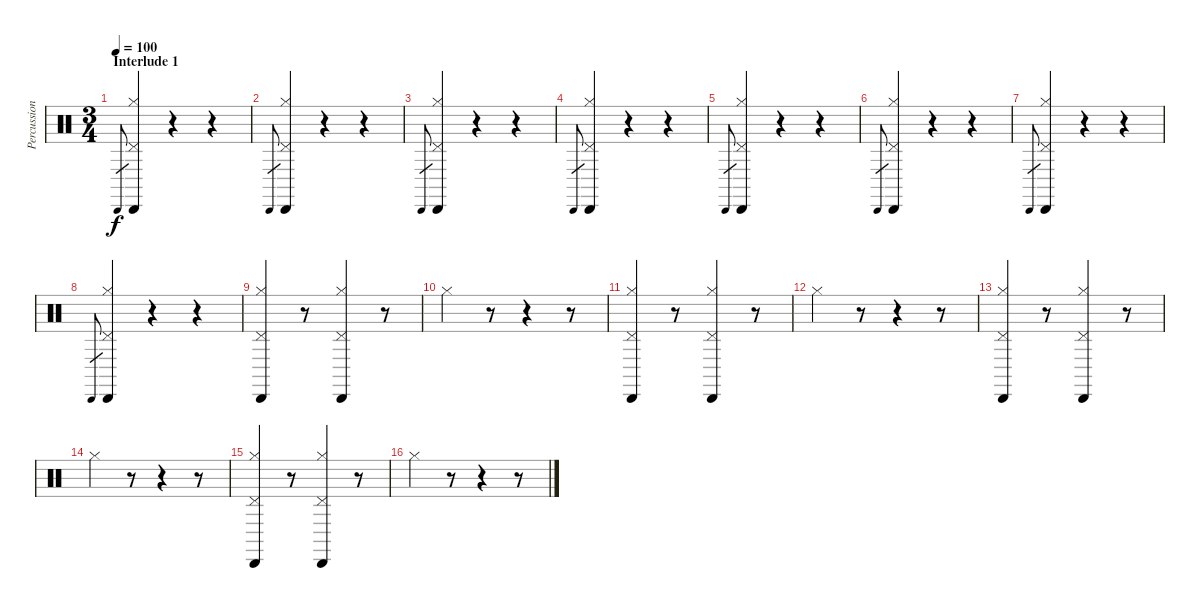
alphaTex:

\track ("Percussion" "Percussion") {instrument percussion}
\staff {score}
\articulation defaults
\ts (3 4)
\section ("" "Interlude 1")
\tempo 100
\clef neutral
\ks c "Cabasa (hit)".8{gr dy f}
("Pedal Hi-Hat (hit)" "Cabasa (hit)" "Hi-Hat (closed)").4 r.4 r.4 |
"Cabasa (hit)".8{gr} ("Pedal Hi-Hat (hit)" "Cabasa (hit)" "Hi-Hat (closed)").4 r.4 r.4 |
"Cabasa (hit)".8{gr} ("Pedal Hi-Hat (hit)" "Cabasa (hit)" "Hi-Hat (closed)").4 r.4 r.4 |
"Cabasa (hit)".8{gr} ("Pedal Hi-Hat (hit)" "Cabasa (hit)" "Hi-Hat (closed)").4 r.4 r.4 |
"Cabasa (hit)".8{gr} ("Pedal Hi-Hat (hit)" "Cabasa (hit)" "Hi-Hat (closed)").4 r.4 r.4 |
"Cabasa (hit)".8{gr} ("Pedal Hi-Hat (hit)" "Cabasa (hit)" "Hi-Hat (closed)").4 r.4 r.4 |
"Cabasa (hit)".8{gr} ("Pedal Hi-Hat (hit)" "Cabasa (hit)" "Hi-Hat (closed)").4 r.4 r.4 |
"Cabasa (hit)".8{gr} ("Pedal Hi-Hat (hit)" "Cabasa (hit)" "Hi-Hat (closed)").4 r.4 r.4 |
("Pedal Hi-Hat (hit)" "Cabasa (hit)" "Hi-Hat (closed)").4 r.8 ("Pedal Hi-Hat (hit)" "Cabasa (hit)" "Hi-Hat (closed)").4 r.8 |
"Hi-Hat (closed)".4 r.8 r.4 r.8 |
("Pedal Hi-Hat (hit)" "Cabasa (hit)" "Hi-Hat (closed)").4 r.8 ("Pedal Hi-Hat (hit)" "Cabasa (hit)" "Hi-Hat (closed)").4 r.8 |
"Hi-Hat (closed)".4 r.8 r.4 r.8 |
("Pedal Hi-Hat (hit)" "Cabasa (hit)" "Hi-Hat (closed)").4 r.8 ("Pedal Hi-Hat (hit)" "Cabasa (hit)" "Hi-Hat (closed)").4 r.8 |
"Hi-Hat (closed)".4 r.8 r.4 r.8 |
("Pedal Hi-Hat (hit)" "Cabasa (hit)" "Hi-Hat (closed)").4 r.8 ("Pedal Hi-Hat (hit)" "Cabasa (hit)" "Hi-Hat (closed)").4 r.8 |
"Hi-Hat (closed)".4 r.8 r.4 r.8
